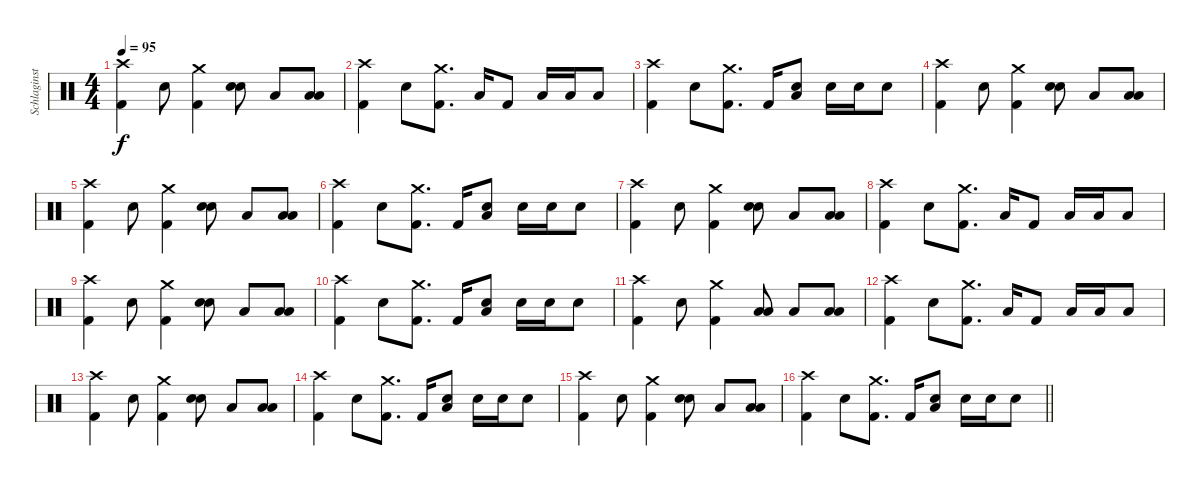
\track ("Schlaginstrumente - Auswahl" "Schlaginst") {instrument percussion}
\staff {score}
\articulation defaults
\ts (4 4)
\tempo 95
\clef neutral
\ks c
("Crash high (hit)" "Kick (hit) 2").4{dy f} "Snare (hit) 2".8 ("Crash medium (hit)" "Kick (hit) 2").4 ("Snare (hit) 2" "Snare (hit) 2").8{bd 240} "Low Floor Tom (hit)".8 ("Low Tom (hit)" "Low Floor Tom (hit)").8 |
("Crash high (hit)" "Kick (hit) 2").4 "Snare (hit) 2".8 ("Crash medium (hit)" "Kick (hit) 2").8{d} "Low Floor Tom (hit)".16 "Kick (hit) 2".8 "Low Floor Tom (hit)".16 "Low Tom (hit)".16 "Low Tom (hit)".8 |
("Crash high (hit)" "Kick (hit) 2").4 "Snare (hit) 2".8 ("Crash medium (hit)" "Kick (hit) 2").8{d} "Kick (hit) 2".16 ("Snare (hit) 2" "Low Floor Tom (hit)").8 "Snare (hit) 2".16 "Snare (hit) 2".16 "Snare (hit) 2".8 |
("Crash high (hit)" "Kick (hit) 2").4 "Snare (hit) 2".8 ("Crash medium (hit)" "Kick (hit) 2").4 ("Snare (hit) 2" "Snare (hit) 2").8{bd 240} "Low Floor Tom (hit)".8 ("Low Tom (hit)" "Low Floor Tom (hit)").8 |
("Crash high (hit)" "Kick (hit) 2").4 "Snare (hit) 2".8 ("Crash medium (hit)" "Kick (hit) 2").4 ("Snare (hit) 2" "Snare (hit) 2").8{bd 240} "Low Floor Tom (hit)".8 ("Low Tom (hit)" "Low Floor Tom (hit)").8 |
("Crash high (hit)" "Kick (hit) 2").4 "Snare (hit) 2".8 ("Crash medium (hit)" "Kick (hit) 2").8{d} "Kick (hit) 2".16 ("Snare (hit) 2" "Low Floor Tom (hit)").8 "Snare (hit) 2".16 "Snare (hit) 2".16 "Snare (hit) 2".8 |
("Crash high (hit)" "Kick (hit) 2").4 "Snare (hit) 2".8 ("Crash medium (hit)" "Kick (hit) 2").4 ("Snare (hit) 2" "Snare (hit) 2").8{bd 240} "Low Floor Tom (hit)".8 ("Low Tom (hit)" "Low Floor Tom (hit)").8 |
("Crash high (hit)" "Kick (hit) 2").4 "Snare (hit) 2".8 ("Crash medium (hit)" "Kick (hit) 2").8{d} "Low Floor Tom (hit)".16 "Kick (hit) 2".8 "Low Floor Tom (hit)".16 "Low Tom (hit)".16 "Low Tom (hit)".8 |
("Crash high (hit)" "Kick (hit) 2").4 "Snare (hit) 2".8 ("Crash medium (hit)" "Kick (hit) 2").4 ("Snare (hit) 2" "Snare (hit) 2").8{bd 240} "Low Floor Tom (hit)".8 ("Low Tom (hit)" "Low Floor Tom (hit)").8 |
("Crash high (hit)" "Kick (hit) 2").4 "Snare (hit) 2".8 ("Crash medium (hit)" "Kick (hit) 2").8{d} "Kick (hit) 2".16 ("Snare (hit) 2" "Low Floor Tom (hit)").8 "Snare (hit) 2".16 "Snare (hit) 2".16 "Snare (hit) 2".8 |
("Crash high (hit)" "Kick (hit) 2").4 "Snare (hit) 2".8 ("Crash medium (hit)" "Kick (hit) 2").4 ("Low Tom (hit)" "Low Floor Tom (hit)").8 "Low Floor Tom (hit)".8 ("Low Tom (hit)" "Low Floor Tom (hit)").8 |
("Crash high (hit)" "Kick (hit) 2").4 "Snare (hit) 2".8 ("Crash medium (hit)" "Kick (hit) 2").8{d} "Low Floor Tom (hit)".16 "Kick (hit) 2".8 "Low Floor Tom (hit)".16 "Low Tom (hit)".16 "Low Tom (hit)".8 |
("Crash high (hit)" "Kick (hit) 2").4 "Snare (hit) 2".8 ("Crash medium (hit)" "Kick (hit) 2").4 ("Snare (hit) 2" "Snare (hit) 2").8{bd 240} "Low Floor Tom (hit)".8 ("Low Tom (hit)" "Low Floor Tom (hit)").8 |
("Crash high (hit)" "Kick (hit) 2").4 "Snare (hit) 2".8 ("Crash medium (hit)" "Kick (hit) 2").8{d} "Kick (hit) 2".16 ("Snare (hit) 2" "Low Floor Tom (hit)").8 "Snare (hit) 2".16 "Snare (hit) 2".16 "Snare (hit) 2".8 |
("Crash high (hit)" "Kick (hit) 2").4 "Snare (hit) 2".8 ("Crash medium (hit)" "Kick (hit) 2").4 ("Snare (hit) 2" "Snare (hit) 2").8{bd 240} "Low Floor Tom (hit)".8 ("Low Tom (hit)" "Low Floor Tom (hit)").8 |
\barLineRight lightlight
("Crash high (hit)" "Kick (hit) 2").4 "Snare (hit) 2".8 ("Crash medium (hit)" "Kick (hit) 2").8{d} "Kick (hit) 2".16 ("Snare (hit) 2" "Low Floor Tom (hit)").8 "Snare (hit) 2".16 "Snare (hit) 2".16 "Snare (hit) 2".8
